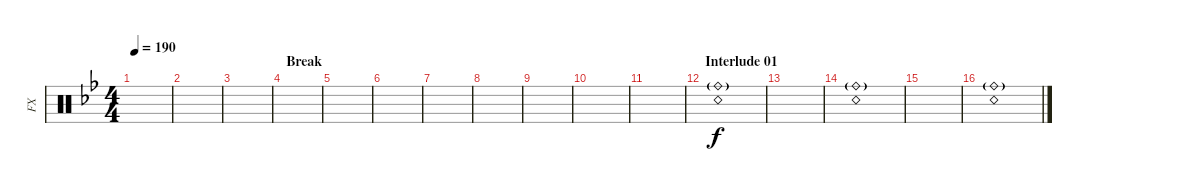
\track ("FX" "FX") {instrument percussion}
\staff {score}
\articulation defaults
\ts (4 4)
\tempo 190
\clef neutral
\ks bb
|
|
|
\section ("" "Break")
|
|
|
|
|
|
|
|
\section ("" "Interlude 01")
("Snare (rim shot)" "Ride (bell)"{g}).1{balance 3} |
|
("Snare (rim shot)" "Ride (bell)"{g}).1 |
|
("Snare (rim shot)" "Ride (bell)"{g}).1
